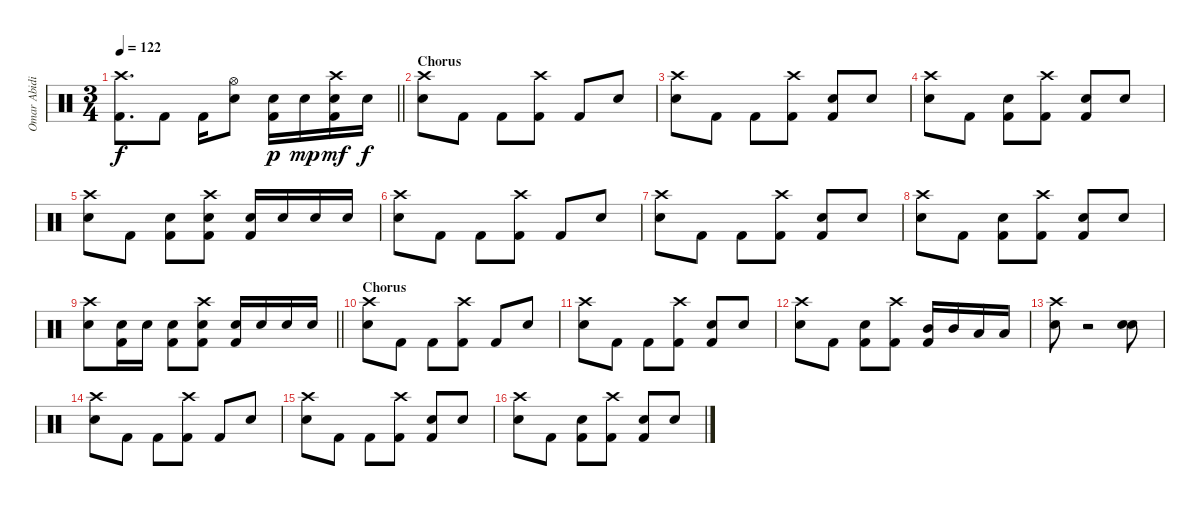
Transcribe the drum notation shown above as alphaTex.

\track ("Omar Abidi" "Omar Abidi") {instrument percussion}
\staff {score}
\articulation defaults
\ts (3 4)
\tempo 122
\clef neutral
\barLineRight lightlight
\ks c
("Crash high (hit)" "Kick (hit) 2").8{d dy f} "Kick (hit) 2".8 "Kick (hit) 2".16 ("Hi-Hat (open)" "Electric Snare (hit)").8 ("Snare (hit) 2" "Kick (hit) 2").16{dy p} "Snare (hit) 2".16{dy mp} ("Crash high (hit)" "Snare (hit) 2" "Kick (hit) 2").16{dy mf} "Snare (hit) 2".16{dy f} |
\section ("" "Chorus")
("Crash high (hit)" "Electric Snare (hit)").8 "Kick (hit) 2".8 "Kick (hit) 2".8 ("Crash high (hit)" "Kick (hit) 2").8 "Kick (hit) 2".8 "Electric Snare (hit)".8 |
("Crash high (hit)" "Electric Snare (hit)").8 "Kick (hit) 2".8 "Kick (hit) 2".8 ("Crash high (hit)" "Kick (hit) 2").8 ("Electric Snare (hit)" "Kick (hit) 2").8 "Electric Snare (hit)".8 |
("Crash high (hit)" "Electric Snare (hit)").8 "Kick (hit) 2".8 ("Electric Snare (hit)" "Kick (hit) 2").8 ("Crash high (hit)" "Kick (hit) 2").8 ("Electric Snare (hit)" "Kick (hit) 2").8 "Electric Snare (hit)".8 |
("Crash high (hit)" "Electric Snare (hit)").8 "Kick (hit) 2".8 ("Electric Snare (hit)" "Kick (hit) 2").8 ("Crash high (hit)" "Electric Snare (hit)" "Kick (hit) 2").8 ("Electric Snare (hit)" "Kick (hit) 2").16 "Electric Snare (hit)".16 "Electric Snare (hit)".16 "Electric Snare (hit)".16 |
("Crash high (hit)" "Electric Snare (hit)").8 "Kick (hit) 2".8 "Kick (hit) 2".8 ("Crash high (hit)" "Kick (hit) 2").8 "Kick (hit) 2".8 "Electric Snare (hit)".8 |
("Crash high (hit)" "Electric Snare (hit)").8 "Kick (hit) 2".8 "Kick (hit) 2".8 ("Crash high (hit)" "Kick (hit) 2").8 ("Electric Snare (hit)" "Kick (hit) 2").8 "Electric Snare (hit)".8 |
("Crash high (hit)" "Electric Snare (hit)").8 "Kick (hit) 2".8 ("Electric Snare (hit)" "Kick (hit) 2").8 ("Crash high (hit)" "Kick (hit) 2").8 ("Electric Snare (hit)" "Kick (hit) 2").8 "Electric Snare (hit)".8 |
\barLineRight lightlight
("Crash high (hit)" "Electric Snare (hit)").8 ("Electric Snare (hit)" "Kick (hit) 2").16 "Electric Snare (hit)".16 ("Electric Snare (hit)" "Kick (hit) 2").8 ("Crash high (hit)" "Electric Snare (hit)" "Kick (hit) 2").8 ("Electric Snare (hit)" "Kick (hit) 2").16 "Electric Snare (hit)".16 "Electric Snare (hit)".16 "Electric Snare (hit)".16 |
\section ("" "Chorus")
("Crash high (hit)" "Electric Snare (hit)").8 "Kick (hit) 2".8 "Kick (hit) 2".8 ("Crash high (hit)" "Kick (hit) 2").8 "Kick (hit) 2".8 "Electric Snare (hit)".8 |
("Crash high (hit)" "Electric Snare (hit)").8 "Kick (hit) 2".8 "Kick (hit) 2".8 ("Crash high (hit)" "Kick (hit) 2").8 ("Electric Snare (hit)" "Kick (hit) 2").8 "Electric Snare (hit)".8 |
("Crash high (hit)" "Electric Snare (hit)").8 "Kick (hit) 2".8 ("Electric Snare (hit)" "Kick (hit) 2").8 ("Crash high (hit)" "Kick (hit) 2").8 ("Mid Tom (hit)" "Kick (hit) 2").16 "Mid Tom (hit)".16 "Low Tom (hit)".16 "Low Tom (hit)".16 |
("Crash high (hit)" "Electric Snare (hit)").8 r.2 ("Electric Snare (hit)" "Electric Snare (hit)").8{bd 120} |
("Crash high (hit)" "Electric Snare (hit)").8 "Kick (hit) 2".8 "Kick (hit) 2".8 ("Crash high (hit)" "Kick (hit) 2").8 "Kick (hit) 2".8 "Electric Snare (hit)".8 |
("Crash high (hit)" "Electric Snare (hit)").8 "Kick (hit) 2".8 "Kick (hit) 2".8 ("Crash high (hit)" "Kick (hit) 2").8 ("Electric Snare (hit)" "Kick (hit) 2").8 "Electric Snare (hit)".8 |
("Crash high (hit)" "Electric Snare (hit)").8 "Kick (hit) 2".8 ("Electric Snare (hit)" "Kick (hit) 2").8 ("Crash high (hit)" "Kick (hit) 2").8 ("Electric Snare (hit)" "Kick (hit) 2").8 "Electric Snare (hit)".8
